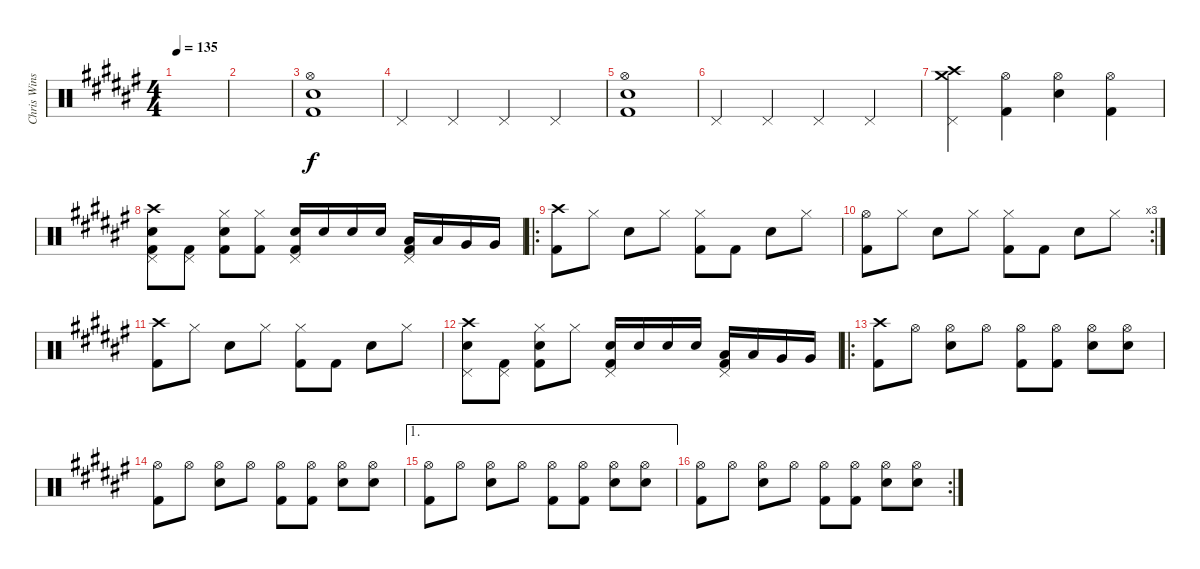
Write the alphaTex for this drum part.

\track ("Chris Winship (Drums)" "Chris Wins") {instrument percussion}
\staff {score}
\articulation defaults
\ts (4 4)
\tempo 135
\clef neutral
\ks f#
|
|
("Hi-Hat (open)" "Electric Snare (hit)" "Kick (hit) 2").1 |
"Pedal Hi-Hat (hit)".4 "Pedal Hi-Hat (hit)".4 "Pedal Hi-Hat (hit)".4 "Pedal Hi-Hat (hit)".4 |
("Hi-Hat (open)" "Electric Snare (hit)" "Kick (hit) 2").1 |
"Pedal Hi-Hat (hit)".4 "Pedal Hi-Hat (hit)".4 "Pedal Hi-Hat (hit)".4 "Pedal Hi-Hat (hit)".4 |
("Pedal Hi-Hat (hit)" "Crash medium (hit)" "Crash high (hit)").4 ("Hi-Hat (open)" "Kick (hit) 2").4 ("Hi-Hat (open)" "Electric Snare (hit)").4 ("Hi-Hat (open)" "Kick (hit) 2").4 |
("Pedal Hi-Hat (hit)" "Electric Snare (hit)" "Kick (hit) 2" "Crash high (hit)").8 ("Pedal Hi-Hat (hit)" "Kick (hit) 2").8 ("Hi-Hat (closed)" "Electric Snare (hit)" "Kick (hit) 2").8 ("Hi-Hat (closed)" "Kick (hit) 2").8 ("Pedal Hi-Hat (hit)" "Electric Snare (hit)" "Kick (hit) 2").16 "Electric Snare (hit)".16 "Electric Snare (hit)".16 "Electric Snare (hit)".16 ("Pedal Hi-Hat (hit)" "Low Floor Tom (hit)" "Kick (hit) 2").16 "Low Floor Tom (hit)".16 "Very Low Tom (hit)".16 "Very Low Tom (hit)".16 |
\ro
("Crash high (hit)" "Kick (hit) 2").8 "Hi-Hat (closed)".8 "Electric Snare (hit)".8 "Hi-Hat (closed)".8 ("Hi-Hat (closed)" "Kick (hit) 2").8 "Kick (hit) 2".8 "Electric Snare (hit)".8 "Hi-Hat (closed)".8 |
\rc 3
("Kick (hit) 2" "Hi-Hat (open)").8 "Hi-Hat (closed)".8 "Electric Snare (hit)".8 "Hi-Hat (closed)".8 ("Hi-Hat (closed)" "Kick (hit) 2").8 "Kick (hit) 2".8 "Electric Snare (hit)".8 "Hi-Hat (closed)".8 |
("Crash high (hit)" "Kick (hit) 2").8 "Hi-Hat (closed)".8 "Electric Snare (hit)".8 "Hi-Hat (closed)".8 ("Hi-Hat (closed)" "Kick (hit) 2").8 "Kick (hit) 2".8 "Electric Snare (hit)".8 "Hi-Hat (closed)".8 |
("Pedal Hi-Hat (hit)" "Electric Snare (hit)" "Crash high (hit)").8 ("Pedal Hi-Hat (hit)" "Kick (hit) 2").8 ("Hi-Hat (closed)" "Electric Snare (hit)" "Kick (hit) 2").8 "Hi-Hat (closed)".8 ("Pedal Hi-Hat (hit)" "Electric Snare (hit)" "Kick (hit) 2").16 "Electric Snare (hit)".16 "Electric Snare (hit)".16 "Electric Snare (hit)".16 ("Pedal Hi-Hat (hit)" "Low Floor Tom (hit)" "Kick (hit) 2").16 "Low Floor Tom (hit)".16 "Very Low Tom (hit)".16 "Very Low Tom (hit)".16 |
\ro
("Crash high (hit)" "Kick (hit) 2").8 "Hi-Hat (open)".8 ("Hi-Hat (open)" "Electric Snare (hit)").8 "Hi-Hat (open)".8 ("Hi-Hat (open)" "Kick (hit) 2").8 ("Hi-Hat (open)" "Kick (hit) 2").8 ("Hi-Hat (open)" "Electric Snare (hit)").8 ("Hi-Hat (open)" "Electric Snare (hit)").8 |
("Hi-Hat (open)" "Kick (hit) 2").8 "Hi-Hat (open)".8 ("Hi-Hat (open)" "Electric Snare (hit)").8 "Hi-Hat (open)".8 ("Hi-Hat (open)" "Kick (hit) 2").8 ("Hi-Hat (open)" "Kick (hit) 2").8 ("Hi-Hat (open)" "Electric Snare (hit)").8 ("Hi-Hat (open)" "Electric Snare (hit)").8 |
\ae 1
("Hi-Hat (open)" "Kick (hit) 2").8 "Hi-Hat (open)".8 ("Hi-Hat (open)" "Electric Snare (hit)").8 "Hi-Hat (open)".8 ("Hi-Hat (open)" "Kick (hit) 2").8 ("Hi-Hat (open)" "Kick (hit) 2").8 ("Hi-Hat (open)" "Electric Snare (hit)").8 ("Hi-Hat (open)" "Electric Snare (hit)").8 |
\rc 2
("Hi-Hat (open)" "Kick (hit) 2").8 "Hi-Hat (open)".8 ("Hi-Hat (open)" "Electric Snare (hit)").8 "Hi-Hat (open)".8 ("Hi-Hat (open)" "Kick (hit) 2").8 ("Hi-Hat (open)" "Kick (hit) 2").8 ("Hi-Hat (open)" "Electric Snare (hit)").8 ("Hi-Hat (open)" "Electric Snare (hit)").8
